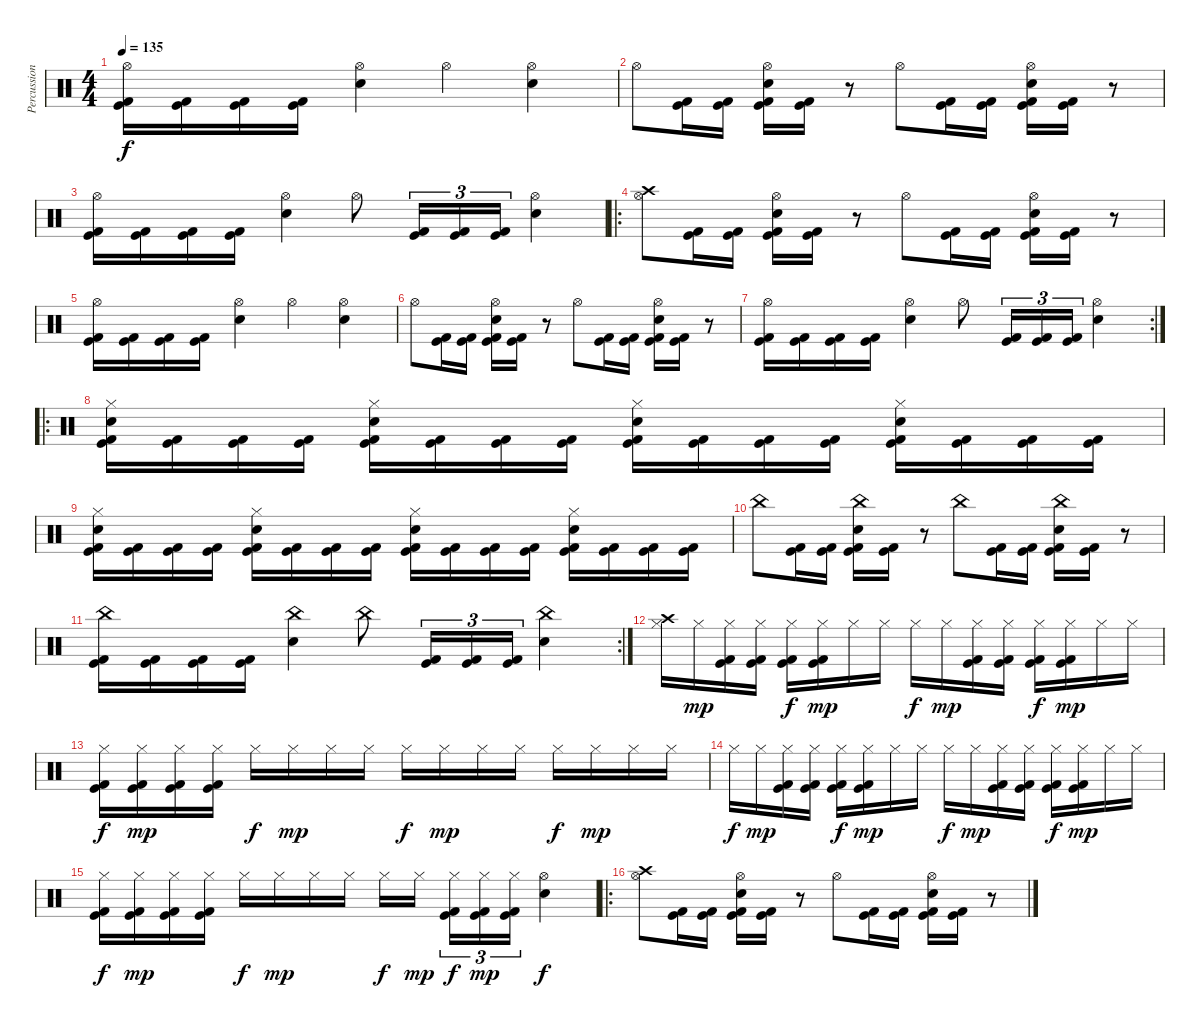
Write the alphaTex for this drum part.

\track ("Percussion" "Percussion") {instrument percussion}
\staff {score}
\articulation defaults
\ts (4 4)
\tempo 135
\clef neutral
\ks c
("Hi-Hat (open)" "Kick (hit) 2" "Kick (hit)").16{dy f} ("Kick (hit) 2" "Kick (hit)").16 ("Kick (hit) 2" "Kick (hit)").16 ("Kick (hit) 2" "Kick (hit)").16 ("Hi-Hat (open)" "Snare (hit) 2").4 "Hi-Hat (open)".4 ("Hi-Hat (open)" "Snare (hit) 2").4 |
"Hi-Hat (open)".8 ("Kick (hit) 2" "Kick (hit)").16 ("Kick (hit) 2" "Kick (hit)").16 ("Hi-Hat (open)" "Snare (hit) 2" "Kick (hit) 2" "Kick (hit)").16 ("Kick (hit) 2" "Kick (hit)").16 r.8 "Hi-Hat (open)".8 ("Kick (hit) 2" "Kick (hit)").16 ("Kick (hit) 2" "Kick (hit)").16 ("Hi-Hat (open)" "Snare (hit) 2" "Kick (hit) 2" "Kick (hit)").16 ("Kick (hit) 2" "Kick (hit)").16 r.8 |
("Hi-Hat (open)" "Kick (hit) 2" "Kick (hit)").16 ("Kick (hit) 2" "Kick (hit)").16 ("Kick (hit) 2" "Kick (hit)").16 ("Kick (hit) 2" "Kick (hit)").16 ("Hi-Hat (open)" "Snare (hit) 2").4 "Hi-Hat (open)".8 ("Kick (hit) 2" "Kick (hit)").16{tu (3 2)} ("Kick (hit) 2" "Kick (hit)").16{tu (3 2)} ("Kick (hit) 2" "Kick (hit)").16{tu (3 2)} ("Hi-Hat (open)" "Snare (hit) 2").4 |
\ro
("Hi-Hat (open)" "Crash high (hit)").8 ("Kick (hit) 2" "Kick (hit)").16 ("Kick (hit) 2" "Kick (hit)").16 ("Hi-Hat (open)" "Snare (hit) 2" "Kick (hit) 2" "Kick (hit)").16 ("Kick (hit) 2" "Kick (hit)").16 r.8 "Hi-Hat (open)".8 ("Kick (hit) 2" "Kick (hit)").16 ("Kick (hit) 2" "Kick (hit)").16 ("Hi-Hat (open)" "Snare (hit) 2" "Kick (hit) 2" "Kick (hit)").16 ("Kick (hit) 2" "Kick (hit)").16 r.8 |
("Hi-Hat (open)" "Kick (hit) 2" "Kick (hit)").16 ("Kick (hit) 2" "Kick (hit)").16 ("Kick (hit) 2" "Kick (hit)").16 ("Kick (hit) 2" "Kick (hit)").16 ("Hi-Hat (open)" "Snare (hit) 2").4 "Hi-Hat (open)".4 ("Hi-Hat (open)" "Snare (hit) 2").4 |
"Hi-Hat (open)".8 ("Kick (hit) 2" "Kick (hit)").16 ("Kick (hit) 2" "Kick (hit)").16 ("Hi-Hat (open)" "Snare (hit) 2" "Kick (hit) 2" "Kick (hit)").16 ("Kick (hit) 2" "Kick (hit)").16 r.8 "Hi-Hat (open)".8 ("Kick (hit) 2" "Kick (hit)").16 ("Kick (hit) 2" "Kick (hit)").16 ("Hi-Hat (open)" "Snare (hit) 2" "Kick (hit) 2" "Kick (hit)").16 ("Kick (hit) 2" "Kick (hit)").16 r.8 |
\rc 2
("Hi-Hat (open)" "Kick (hit) 2" "Kick (hit)").16 ("Kick (hit) 2" "Kick (hit)").16 ("Kick (hit) 2" "Kick (hit)").16 ("Kick (hit) 2" "Kick (hit)").16 ("Hi-Hat (open)" "Snare (hit) 2").4 "Hi-Hat (open)".8 ("Kick (hit) 2" "Kick (hit)").16{tu (3 2)} ("Kick (hit) 2" "Kick (hit)").16{tu (3 2)} ("Kick (hit) 2" "Kick (hit)").16{tu (3 2)} ("Hi-Hat (open)" "Snare (hit) 2").4 |
\ro
("Hi-Hat (closed)" "Snare (hit) 2" "Kick (hit) 2" "Kick (hit)").16 ("Kick (hit) 2" "Kick (hit)").16 ("Kick (hit) 2" "Kick (hit)").16 ("Kick (hit) 2" "Kick (hit)").16 ("Hi-Hat (closed)" "Snare (hit) 2" "Kick (hit) 2" "Kick (hit)").16 ("Kick (hit) 2" "Kick (hit)").16 ("Kick (hit) 2" "Kick (hit)").16 ("Kick (hit) 2" "Kick (hit)").16 ("Hi-Hat (closed)" "Snare (hit) 2" "Kick (hit) 2" "Kick (hit)").16 ("Kick (hit) 2" "Kick (hit)").16 ("Kick (hit) 2" "Kick (hit)").16 ("Kick (hit) 2" "Kick (hit)").16 ("Hi-Hat (closed)" "Snare (hit) 2" "Kick (hit) 2" "Kick (hit)").16 ("Kick (hit) 2" "Kick (hit)").16 ("Kick (hit) 2" "Kick (hit)").16 ("Kick (hit) 2" "Kick (hit)").16 |
("Hi-Hat (closed)" "Snare (hit) 2" "Kick (hit) 2" "Kick (hit)").16 ("Kick (hit) 2" "Kick (hit)").16 ("Kick (hit) 2" "Kick (hit)").16 ("Kick (hit) 2" "Kick (hit)").16 ("Hi-Hat (closed)" "Snare (hit) 2" "Kick (hit) 2" "Kick (hit)").16 ("Kick (hit) 2" "Kick (hit)").16 ("Kick (hit) 2" "Kick (hit)").16 ("Kick (hit) 2" "Kick (hit)").16 ("Hi-Hat (closed)" "Snare (hit) 2" "Kick (hit) 2" "Kick (hit)").16 ("Kick (hit) 2" "Kick (hit)").16 ("Kick (hit) 2" "Kick (hit)").16 ("Kick (hit) 2" "Kick (hit)").16 ("Hi-Hat (closed)" "Snare (hit) 2" "Kick (hit) 2" "Kick (hit)").16 ("Kick (hit) 2" "Kick (hit)").16 ("Kick (hit) 2" "Kick (hit)").16 ("Kick (hit) 2" "Kick (hit)").16 |
"China (hit)".8 ("Kick (hit) 2" "Kick (hit)").16 ("Kick (hit) 2" "Kick (hit)").16 ("China (hit)" "Snare (hit) 2" "Kick (hit) 2" "Kick (hit)").16 ("Kick (hit) 2" "Kick (hit)").16 r.8 "China (hit)".8 ("Kick (hit) 2" "Kick (hit)").16 ("Kick (hit) 2" "Kick (hit)").16 ("China (hit)" "Snare (hit) 2" "Kick (hit) 2" "Kick (hit)").16 ("Kick (hit) 2" "Kick (hit)").16 r.8 |
\rc 2
("China (hit)" "Kick (hit) 2" "Kick (hit)").16 ("Kick (hit) 2" "Kick (hit)").16 ("Kick (hit) 2" "Kick (hit)").16 ("Kick (hit) 2" "Kick (hit)").16 ("China (hit)" "Snare (hit) 2").4 "China (hit)".8 ("Kick (hit) 2" "Kick (hit)").16{tu (3 2)} ("Kick (hit) 2" "Kick (hit)").16{tu (3 2)} ("Kick (hit) 2" "Kick (hit)").16{tu (3 2)} ("China (hit)" "Snare (hit) 2").4 |
("Hi-Hat (closed)" "Crash high (hit)").16 "Hi-Hat (closed)".16{dy mp} ("Hi-Hat (closed)" "Kick (hit) 2" "Kick (hit)").16 ("Hi-Hat (closed)" "Kick (hit) 2" "Kick (hit)").16 ("Hi-Hat (closed)" "Kick (hit) 2" "Kick (hit)").16{dy f} ("Hi-Hat (closed)" "Kick (hit) 2" "Kick (hit)").16{dy mp} "Hi-Hat (closed)".16 "Hi-Hat (closed)".16 "Hi-Hat (closed)".16{dy f} "Hi-Hat (closed)".16{dy mp} ("Hi-Hat (closed)" "Kick (hit) 2" "Kick (hit)").16 ("Hi-Hat (closed)" "Kick (hit) 2" "Kick (hit)").16 ("Hi-Hat (closed)" "Kick (hit) 2" "Kick (hit)").16{dy f} ("Hi-Hat (closed)" "Kick (hit) 2" "Kick (hit)").16{dy mp} "Hi-Hat (closed)".16 "Hi-Hat (closed)".16 |
("Hi-Hat (closed)" "Kick (hit) 2" "Kick (hit)").16{dy f} ("Hi-Hat (closed)" "Kick (hit) 2" "Kick (hit)").16{dy mp} ("Hi-Hat (closed)" "Kick (hit) 2" "Kick (hit)").16 ("Hi-Hat (closed)" "Kick (hit) 2" "Kick (hit)").16 "Hi-Hat (closed)".16{dy f} "Hi-Hat (closed)".16{dy mp} "Hi-Hat (closed)".16 "Hi-Hat (closed)".16 "Hi-Hat (closed)".16{dy f} "Hi-Hat (closed)".16{dy mp} "Hi-Hat (closed)".16 "Hi-Hat (closed)".16 "Hi-Hat (closed)".16{dy f} "Hi-Hat (closed)".16{dy mp} "Hi-Hat (closed)".16 "Hi-Hat (closed)".16 |
"Hi-Hat (closed)".16{dy f} "Hi-Hat (closed)".16{dy mp} ("Hi-Hat (closed)" "Kick (hit) 2" "Kick (hit)").16 ("Hi-Hat (closed)" "Kick (hit) 2" "Kick (hit)").16 ("Hi-Hat (closed)" "Kick (hit) 2" "Kick (hit)").16{dy f} ("Hi-Hat (closed)" "Kick (hit) 2" "Kick (hit)").16{dy mp} "Hi-Hat (closed)".16 "Hi-Hat (closed)".16 "Hi-Hat (closed)".16{dy f} "Hi-Hat (closed)".16{dy mp} ("Hi-Hat (closed)" "Kick (hit) 2" "Kick (hit)").16 ("Hi-Hat (closed)" "Kick (hit) 2" "Kick (hit)").16 ("Hi-Hat (closed)" "Kick (hit) 2" "Kick (hit)").16{dy f} ("Hi-Hat (closed)" "Kick (hit) 2" "Kick (hit)").16{dy mp} "Hi-Hat (closed)".16 "Hi-Hat (closed)".16 |
("Hi-Hat (closed)" "Kick (hit) 2" "Kick (hit)").16{dy f} ("Hi-Hat (closed)" "Kick (hit) 2" "Kick (hit)").16{dy mp} ("Hi-Hat (closed)" "Kick (hit) 2" "Kick (hit)").16 ("Hi-Hat (closed)" "Kick (hit) 2" "Kick (hit)").16 "Hi-Hat (closed)".16{dy f} "Hi-Hat (closed)".16{dy mp} "Hi-Hat (closed)".16 "Hi-Hat (closed)".16 "Hi-Hat (closed)".16{dy f} "Hi-Hat (closed)".16{dy mp} ("Hi-Hat (closed)" "Kick (hit) 2" "Kick (hit)").16{tu (3 2) dy f} ("Hi-Hat (closed)" "Kick (hit) 2" "Kick (hit)").16{tu (3 2) dy mp} ("Hi-Hat (closed)" "Kick (hit) 2" "Kick (hit)").16{tu (3 2)} ("Hi-Hat (open)" "Snare (hit) 2").4{dy f} |
\ro
("Hi-Hat (open)" "Crash high (hit)").8 ("Kick (hit) 2" "Kick (hit)").16 ("Kick (hit) 2" "Kick (hit)").16 ("Hi-Hat (open)" "Snare (hit) 2" "Kick (hit) 2" "Kick (hit)").16 ("Kick (hit) 2" "Kick (hit)").16 r.8 "Hi-Hat (open)".8 ("Kick (hit) 2" "Kick (hit)").16 ("Kick (hit) 2" "Kick (hit)").16 ("Hi-Hat (open)" "Snare (hit) 2" "Kick (hit) 2" "Kick (hit)").16 ("Kick (hit) 2" "Kick (hit)").16 r.8
